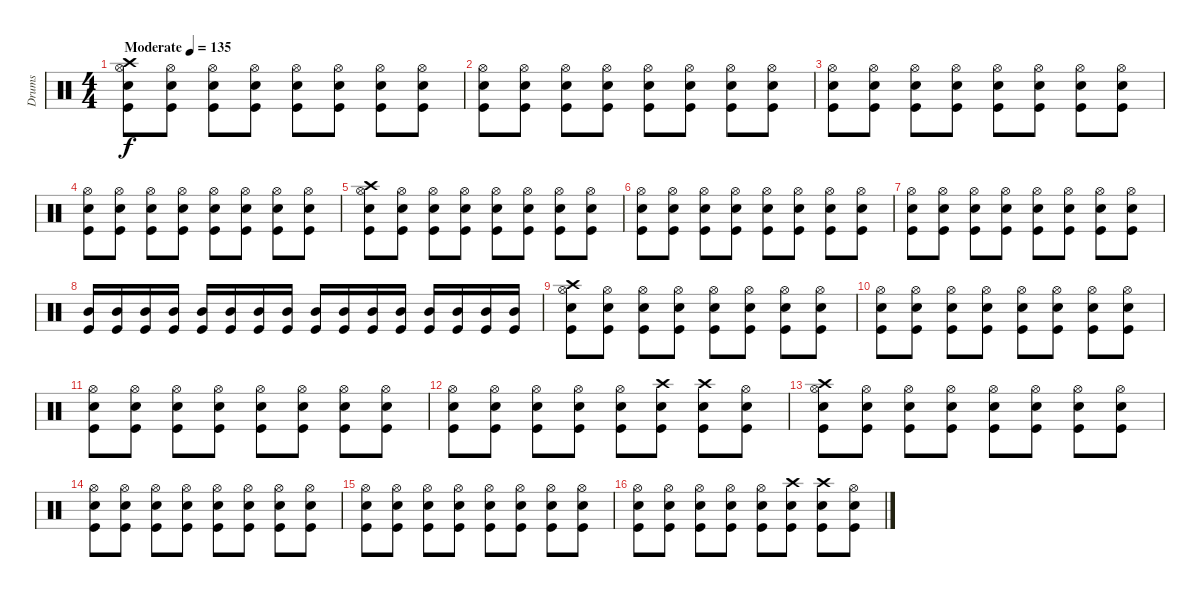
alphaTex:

\track ("Drums" "Drums") {instrument percussion}
\staff {score}
\articulation defaults
\ts (4 4)
\tempo (135 "Moderate")
\clef neutral
\ks c
("Crash high (hit)" "Hi-Hat (open)" "Electric Snare (hit)" "Kick (hit)").8{dy f} ("Hi-Hat (open)" "Electric Snare (hit)" "Kick (hit)").8 ("Hi-Hat (open)" "Electric Snare (hit)" "Kick (hit)").8 ("Hi-Hat (open)" "Electric Snare (hit)" "Kick (hit)").8 ("Hi-Hat (open)" "Electric Snare (hit)" "Kick (hit)").8 ("Hi-Hat (open)" "Electric Snare (hit)" "Kick (hit)").8 ("Hi-Hat (open)" "Electric Snare (hit)" "Kick (hit)").8 ("Hi-Hat (open)" "Electric Snare (hit)" "Kick (hit)").8 |
("Hi-Hat (open)" "Electric Snare (hit)" "Kick (hit)").8 ("Hi-Hat (open)" "Electric Snare (hit)" "Kick (hit)").8 ("Hi-Hat (open)" "Electric Snare (hit)" "Kick (hit)").8 ("Hi-Hat (open)" "Electric Snare (hit)" "Kick (hit)").8 ("Hi-Hat (open)" "Electric Snare (hit)" "Kick (hit)").8 ("Hi-Hat (open)" "Electric Snare (hit)" "Kick (hit)").8 ("Hi-Hat (open)" "Electric Snare (hit)" "Kick (hit)").8 ("Hi-Hat (open)" "Electric Snare (hit)" "Kick (hit)").8 |
("Hi-Hat (open)" "Electric Snare (hit)" "Kick (hit)").8 ("Hi-Hat (open)" "Electric Snare (hit)" "Kick (hit)").8 ("Hi-Hat (open)" "Electric Snare (hit)" "Kick (hit)").8 ("Hi-Hat (open)" "Electric Snare (hit)" "Kick (hit)").8 ("Hi-Hat (open)" "Electric Snare (hit)" "Kick (hit)").8 ("Hi-Hat (open)" "Electric Snare (hit)" "Kick (hit)").8 ("Hi-Hat (open)" "Electric Snare (hit)" "Kick (hit)").8 ("Hi-Hat (open)" "Electric Snare (hit)" "Kick (hit)").8 |
("Hi-Hat (open)" "Electric Snare (hit)" "Kick (hit)").8 ("Hi-Hat (open)" "Electric Snare (hit)" "Kick (hit)").8 ("Hi-Hat (open)" "Electric Snare (hit)" "Kick (hit)").8 ("Hi-Hat (open)" "Electric Snare (hit)" "Kick (hit)").8 ("Hi-Hat (open)" "Electric Snare (hit)" "Kick (hit)").8 ("Hi-Hat (open)" "Electric Snare (hit)" "Kick (hit)").8 ("Hi-Hat (open)" "Electric Snare (hit)" "Kick (hit)").8 ("Hi-Hat (open)" "Electric Snare (hit)" "Kick (hit)").8 |
("Crash high (hit)" "Hi-Hat (open)" "Electric Snare (hit)" "Kick (hit)").8 ("Hi-Hat (open)" "Electric Snare (hit)" "Kick (hit)").8 ("Hi-Hat (open)" "Electric Snare (hit)" "Kick (hit)").8 ("Hi-Hat (open)" "Electric Snare (hit)" "Kick (hit)").8 ("Hi-Hat (open)" "Electric Snare (hit)" "Kick (hit)").8 ("Hi-Hat (open)" "Electric Snare (hit)" "Kick (hit)").8 ("Hi-Hat (open)" "Electric Snare (hit)" "Kick (hit)").8 ("Hi-Hat (open)" "Electric Snare (hit)" "Kick (hit)").8 |
("Hi-Hat (open)" "Electric Snare (hit)" "Kick (hit)").8 ("Hi-Hat (open)" "Electric Snare (hit)" "Kick (hit)").8 ("Hi-Hat (open)" "Electric Snare (hit)" "Kick (hit)").8 ("Hi-Hat (open)" "Electric Snare (hit)" "Kick (hit)").8 ("Hi-Hat (open)" "Electric Snare (hit)" "Kick (hit)").8 ("Hi-Hat (open)" "Electric Snare (hit)" "Kick (hit)").8 ("Hi-Hat (open)" "Electric Snare (hit)" "Kick (hit)").8 ("Hi-Hat (open)" "Electric Snare (hit)" "Kick (hit)").8 |
("Hi-Hat (open)" "Electric Snare (hit)" "Kick (hit)").8 ("Hi-Hat (open)" "Electric Snare (hit)" "Kick (hit)").8 ("Hi-Hat (open)" "Electric Snare (hit)" "Kick (hit)").8 ("Hi-Hat (open)" "Electric Snare (hit)" "Kick (hit)").8 ("Hi-Hat (open)" "Electric Snare (hit)" "Kick (hit)").8 ("Hi-Hat (open)" "Electric Snare (hit)" "Kick (hit)").8 ("Hi-Hat (open)" "Electric Snare (hit)" "Kick (hit)").8 ("Hi-Hat (open)" "Electric Snare (hit)" "Kick (hit)").8 |
("Mid Tom (hit)" "Kick (hit)").16 ("Mid Tom (hit)" "Kick (hit)").16 ("Mid Tom (hit)" "Kick (hit)").16 ("Mid Tom (hit)" "Kick (hit)").16 ("Mid Tom (hit)" "Kick (hit)").16 ("Mid Tom (hit)" "Kick (hit)").16 ("Mid Tom (hit)" "Kick (hit)").16 ("Mid Tom (hit)" "Kick (hit)").16 ("Mid Tom (hit)" "Kick (hit)").16 ("Mid Tom (hit)" "Kick (hit)").16 ("Mid Tom (hit)" "Kick (hit)").16 ("Mid Tom (hit)" "Kick (hit)").16 ("Mid Tom (hit)" "Kick (hit)").16 ("Mid Tom (hit)" "Kick (hit)").16 ("Mid Tom (hit)" "Kick (hit)").16 ("Mid Tom (hit)" "Kick (hit)").16 |
("Crash high (hit)" "Hi-Hat (open)" "Electric Snare (hit)" "Kick (hit)").8 ("Hi-Hat (open)" "Electric Snare (hit)" "Kick (hit)").8 ("Hi-Hat (open)" "Electric Snare (hit)" "Kick (hit)").8 ("Hi-Hat (open)" "Electric Snare (hit)" "Kick (hit)").8 ("Hi-Hat (open)" "Electric Snare (hit)" "Kick (hit)").8 ("Hi-Hat (open)" "Electric Snare (hit)" "Kick (hit)").8 ("Hi-Hat (open)" "Electric Snare (hit)" "Kick (hit)").8 ("Hi-Hat (open)" "Electric Snare (hit)" "Kick (hit)").8 |
("Hi-Hat (open)" "Electric Snare (hit)" "Kick (hit)").8 ("Hi-Hat (open)" "Electric Snare (hit)" "Kick (hit)").8 ("Hi-Hat (open)" "Electric Snare (hit)" "Kick (hit)").8 ("Hi-Hat (open)" "Electric Snare (hit)" "Kick (hit)").8 ("Hi-Hat (open)" "Electric Snare (hit)" "Kick (hit)").8 ("Hi-Hat (open)" "Electric Snare (hit)" "Kick (hit)").8 ("Hi-Hat (open)" "Electric Snare (hit)" "Kick (hit)").8 ("Hi-Hat (open)" "Electric Snare (hit)" "Kick (hit)").8 |
("Hi-Hat (open)" "Electric Snare (hit)" "Kick (hit)").8 ("Hi-Hat (open)" "Electric Snare (hit)" "Kick (hit)").8 ("Hi-Hat (open)" "Electric Snare (hit)" "Kick (hit)").8 ("Hi-Hat (open)" "Electric Snare (hit)" "Kick (hit)").8 ("Hi-Hat (open)" "Electric Snare (hit)" "Kick (hit)").8 ("Hi-Hat (open)" "Electric Snare (hit)" "Kick (hit)").8 ("Hi-Hat (open)" "Electric Snare (hit)" "Kick (hit)").8 ("Hi-Hat (open)" "Electric Snare (hit)" "Kick (hit)").8 |
("Hi-Hat (open)" "Electric Snare (hit)" "Kick (hit)").8 ("Hi-Hat (open)" "Electric Snare (hit)" "Kick (hit)").8 ("Hi-Hat (open)" "Electric Snare (hit)" "Kick (hit)").8 ("Hi-Hat (open)" "Electric Snare (hit)" "Kick (hit)").8 ("Hi-Hat (open)" "Electric Snare (hit)" "Kick (hit)").8 ("Crash high (hit)" "Electric Snare (hit)" "Kick (hit)").8 ("Crash high (hit)" "Electric Snare (hit)" "Kick (hit)").8 ("Hi-Hat (open)" "Electric Snare (hit)" "Kick (hit)").8 |
("Crash high (hit)" "Hi-Hat (open)" "Electric Snare (hit)" "Kick (hit)").8 ("Hi-Hat (open)" "Electric Snare (hit)" "Kick (hit)").8 ("Hi-Hat (open)" "Electric Snare (hit)" "Kick (hit)").8 ("Hi-Hat (open)" "Electric Snare (hit)" "Kick (hit)").8 ("Hi-Hat (open)" "Electric Snare (hit)" "Kick (hit)").8 ("Hi-Hat (open)" "Electric Snare (hit)" "Kick (hit)").8 ("Hi-Hat (open)" "Electric Snare (hit)" "Kick (hit)").8 ("Hi-Hat (open)" "Electric Snare (hit)" "Kick (hit)").8 |
("Hi-Hat (open)" "Electric Snare (hit)" "Kick (hit)").8 ("Hi-Hat (open)" "Electric Snare (hit)" "Kick (hit)").8 ("Hi-Hat (open)" "Electric Snare (hit)" "Kick (hit)").8 ("Hi-Hat (open)" "Electric Snare (hit)" "Kick (hit)").8 ("Hi-Hat (open)" "Electric Snare (hit)" "Kick (hit)").8 ("Hi-Hat (open)" "Electric Snare (hit)" "Kick (hit)").8 ("Hi-Hat (open)" "Electric Snare (hit)" "Kick (hit)").8 ("Hi-Hat (open)" "Electric Snare (hit)" "Kick (hit)").8 |
("Hi-Hat (open)" "Electric Snare (hit)" "Kick (hit)").8 ("Hi-Hat (open)" "Electric Snare (hit)" "Kick (hit)").8 ("Hi-Hat (open)" "Electric Snare (hit)" "Kick (hit)").8 ("Hi-Hat (open)" "Electric Snare (hit)" "Kick (hit)").8 ("Hi-Hat (open)" "Electric Snare (hit)" "Kick (hit)").8 ("Hi-Hat (open)" "Electric Snare (hit)" "Kick (hit)").8 ("Hi-Hat (open)" "Electric Snare (hit)" "Kick (hit)").8 ("Hi-Hat (open)" "Electric Snare (hit)" "Kick (hit)").8 |
("Hi-Hat (open)" "Electric Snare (hit)" "Kick (hit)").8 ("Hi-Hat (open)" "Electric Snare (hit)" "Kick (hit)").8 ("Hi-Hat (open)" "Electric Snare (hit)" "Kick (hit)").8 ("Hi-Hat (open)" "Electric Snare (hit)" "Kick (hit)").8 ("Hi-Hat (open)" "Electric Snare (hit)" "Kick (hit)").8 ("Crash high (hit)" "Electric Snare (hit)" "Kick (hit)").8 ("Crash high (hit)" "Electric Snare (hit)" "Kick (hit)").8 ("Hi-Hat (open)" "Electric Snare (hit)" "Kick (hit)").8
